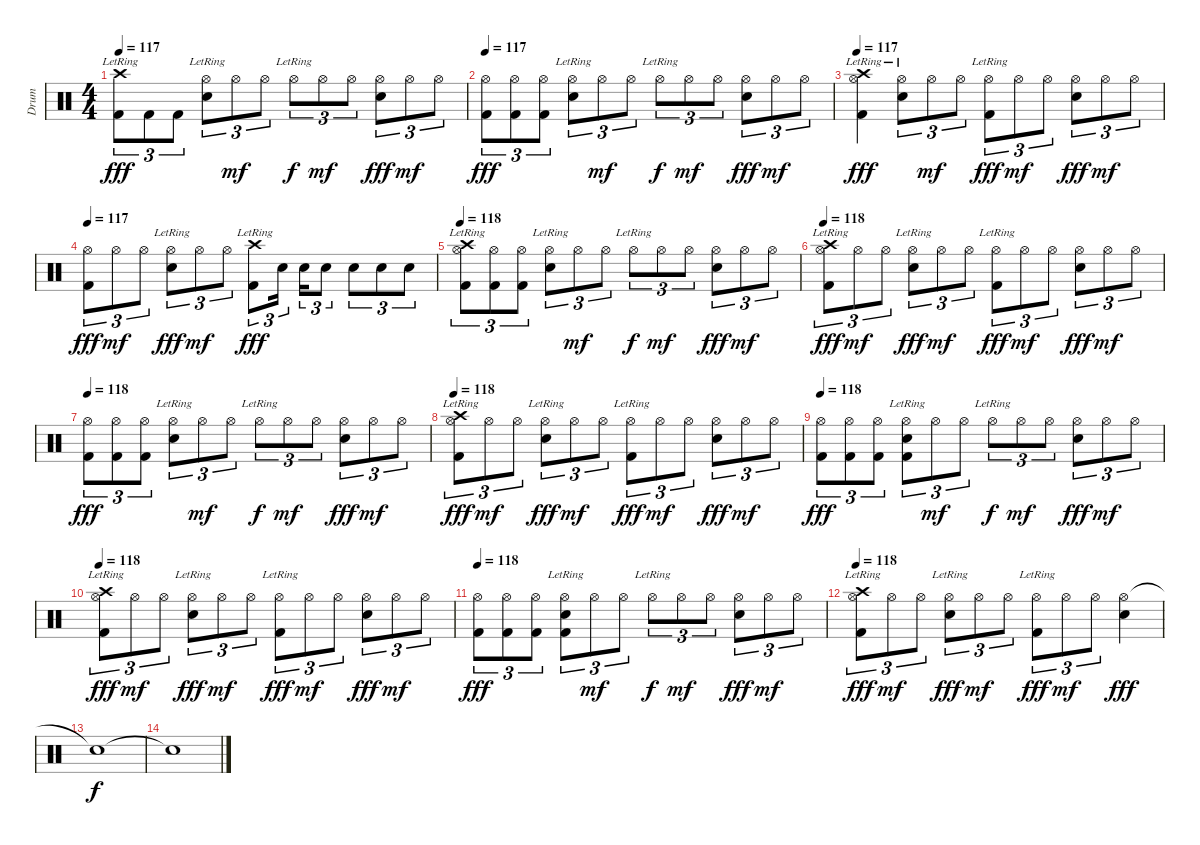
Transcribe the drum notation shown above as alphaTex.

\track ("Drum" "Drum") {instrument percussion}
\staff {score}
\articulation defaults
\ts (4 4)
\tempo 117
\clef neutral
\ks c
("Crash high (hit)"{lr} "Kick (hit) 2").8{tu (3 2) dy fff} "Kick (hit) 2".8{tu (3 2)} "Kick (hit) 2".8{tu (3 2)} ("Hi-Hat (open)"{lr} "Electric Snare (hit)").8{tu (3 2)} "Hi-Hat (open)".8{tu (3 2) dy mf} "Hi-Hat (open)".8{tu (3 2)} "Hi-Hat (open)"{lr}.8{tu (3 2) dy f} "Hi-Hat (open)".8{tu (3 2) dy mf} "Hi-Hat (open)".8{tu (3 2)} ("Hi-Hat (open)" "Electric Snare (hit)").8{tu (3 2) dy fff} "Hi-Hat (open)".8{tu (3 2) dy mf} "Hi-Hat (open)".8{tu (3 2)} |
\tempo 117
("Hi-Hat (open)" "Kick (hit) 2").8{tu (3 2) dy fff} ("Hi-Hat (open)" "Kick (hit) 2").8{tu (3 2)} ("Hi-Hat (open)" "Kick (hit) 2").8{tu (3 2)} ("Hi-Hat (open)"{lr} "Electric Snare (hit)").8{tu (3 2)} "Hi-Hat (open)".8{tu (3 2) dy mf} "Hi-Hat (open)".8{tu (3 2)} "Hi-Hat (open)"{lr}.8{tu (3 2) dy f} "Hi-Hat (open)".8{tu (3 2) dy mf} "Hi-Hat (open)".8{tu (3 2)} ("Hi-Hat (open)" "Electric Snare (hit)").8{tu (3 2) dy fff} "Hi-Hat (open)".8{tu (3 2) dy mf} "Hi-Hat (open)".8{tu (3 2)} |
\tempo 117
("Crash high (hit)"{lr} "Hi-Hat (open)" "Kick (hit) 2").4{dy fff} ("Hi-Hat (open)"{lr} "Electric Snare (hit)").8{tu (3 2)} "Hi-Hat (open)".8{tu (3 2) dy mf} "Hi-Hat (open)".8{tu (3 2)} ("Hi-Hat (open)"{lr} "Kick (hit) 2").8{tu (3 2) dy fff} "Hi-Hat (open)".8{tu (3 2) dy mf} "Hi-Hat (open)".8{tu (3 2)} ("Hi-Hat (open)" "Electric Snare (hit)").8{tu (3 2) dy fff} "Hi-Hat (open)".8{tu (3 2) dy mf} "Hi-Hat (open)".8{tu (3 2)} |
\tempo 117
("Hi-Hat (open)" "Kick (hit) 2").8{tu (3 2) dy fff} "Hi-Hat (open)".8{tu (3 2) dy mf} "Hi-Hat (open)".8{tu (3 2)} ("Hi-Hat (open)"{lr} "Electric Snare (hit)").8{tu (3 2) dy fff} "Hi-Hat (open)".8{tu (3 2) dy mf} "Hi-Hat (open)".8{tu (3 2)} ("Crash high (hit)"{lr} "Kick (hit) 2").8{tu (3 2) dy fff} "Electric Snare (hit)".16{tu (3 2) beam splitsecondary} "Electric Snare (hit)".16{tu (3 2)} "Electric Snare (hit)".8{tu (3 2)} "Electric Snare (hit)".8{tu (3 2)} "Electric Snare (hit)".8{tu (3 2)} "Electric Snare (hit)".8{tu (3 2)} |
\tempo 118
("Crash high (hit)"{lr} "Hi-Hat (open)" "Kick (hit) 2").8{tu (3 2)} ("Hi-Hat (open)" "Kick (hit) 2").8{tu (3 2)} ("Hi-Hat (open)" "Kick (hit) 2").8{tu (3 2)} ("Hi-Hat (open)"{lr} "Electric Snare (hit)").8{tu (3 2)} "Hi-Hat (open)".8{tu (3 2) dy mf} "Hi-Hat (open)".8{tu (3 2)} "Hi-Hat (open)"{lr}.8{tu (3 2) dy f} "Hi-Hat (open)".8{tu (3 2) dy mf} "Hi-Hat (open)".8{tu (3 2)} ("Hi-Hat (open)" "Electric Snare (hit)").8{tu (3 2) dy fff} "Hi-Hat (open)".8{tu (3 2) dy mf} "Hi-Hat (open)".8{tu (3 2)} |
\tempo 118
("Crash high (hit)" "Hi-Hat (open)"{lr} "Kick (hit) 2").8{tu (3 2) dy fff} "Hi-Hat (open)".8{tu (3 2) dy mf} "Hi-Hat (open)".8{tu (3 2)} ("Hi-Hat (open)"{lr} "Electric Snare (hit)").8{tu (3 2) dy fff} "Hi-Hat (open)".8{tu (3 2) dy mf} "Hi-Hat (open)".8{tu (3 2)} ("Hi-Hat (open)"{lr} "Kick (hit) 2").8{tu (3 2) dy fff} "Hi-Hat (open)".8{tu (3 2) dy mf} "Hi-Hat (open)".8{tu (3 2)} ("Hi-Hat (open)" "Electric Snare (hit)").8{tu (3 2) dy fff} "Hi-Hat (open)".8{tu (3 2) dy mf} "Hi-Hat (open)".8{tu (3 2)} |
\tempo 118
("Hi-Hat (open)" "Kick (hit) 2").8{tu (3 2) dy fff} ("Hi-Hat (open)" "Kick (hit) 2").8{tu (3 2)} ("Hi-Hat (open)" "Kick (hit) 2").8{tu (3 2)} ("Hi-Hat (open)"{lr} "Electric Snare (hit)").8{tu (3 2)} "Hi-Hat (open)".8{tu (3 2) dy mf} "Hi-Hat (open)".8{tu (3 2)} "Hi-Hat (open)"{lr}.8{tu (3 2) dy f} "Hi-Hat (open)".8{tu (3 2) dy mf} "Hi-Hat (open)".8{tu (3 2)} ("Hi-Hat (open)" "Electric Snare (hit)").8{tu (3 2) dy fff} "Hi-Hat (open)".8{tu (3 2) dy mf} "Hi-Hat (open)".8{tu (3 2)} |
\tempo 118
("Crash high (hit)" "Hi-Hat (open)"{lr} "Kick (hit) 2").8{tu (3 2) dy fff} "Hi-Hat (open)".8{tu (3 2) dy mf} "Hi-Hat (open)".8{tu (3 2)} ("Hi-Hat (open)"{lr} "Electric Snare (hit)").8{tu (3 2) dy fff} "Hi-Hat (open)".8{tu (3 2) dy mf} "Hi-Hat (open)".8{tu (3 2)} ("Hi-Hat (open)"{lr} "Kick (hit) 2").8{tu (3 2) dy fff} "Hi-Hat (open)".8{tu (3 2) dy mf} "Hi-Hat (open)".8{tu (3 2)} ("Hi-Hat (open)" "Electric Snare (hit)").8{tu (3 2) dy fff} "Hi-Hat (open)".8{tu (3 2) dy mf} "Hi-Hat (open)".8{tu (3 2)} |
\tempo 118
("Hi-Hat (open)" "Kick (hit) 2").8{tu (3 2) dy fff} ("Hi-Hat (open)" "Kick (hit) 2").8{tu (3 2)} ("Hi-Hat (open)" "Kick (hit) 2").8{tu (3 2)} ("Hi-Hat (open)"{lr} "Electric Snare (hit)" "Kick (hit) 2").8{tu (3 2)} "Hi-Hat (open)".8{tu (3 2) dy mf} "Hi-Hat (open)".8{tu (3 2)} "Hi-Hat (open)"{lr}.8{tu (3 2) dy f} "Hi-Hat (open)".8{tu (3 2) dy mf} "Hi-Hat (open)".8{tu (3 2)} ("Hi-Hat (open)" "Electric Snare (hit)").8{tu (3 2) dy fff} "Hi-Hat (open)".8{tu (3 2) dy mf} "Hi-Hat (open)".8{tu (3 2)} |
\tempo 118
("Crash high (hit)" "Hi-Hat (open)"{lr} "Kick (hit) 2").8{tu (3 2) dy fff} "Hi-Hat (open)".8{tu (3 2) dy mf} "Hi-Hat (open)".8{tu (3 2)} ("Hi-Hat (open)"{lr} "Electric Snare (hit)").8{tu (3 2) dy fff} "Hi-Hat (open)".8{tu (3 2) dy mf} "Hi-Hat (open)".8{tu (3 2)} ("Hi-Hat (open)"{lr} "Kick (hit) 2").8{tu (3 2) dy fff} "Hi-Hat (open)".8{tu (3 2) dy mf} "Hi-Hat (open)".8{tu (3 2)} ("Hi-Hat (open)" "Electric Snare (hit)").8{tu (3 2) dy fff} "Hi-Hat (open)".8{tu (3 2) dy mf} "Hi-Hat (open)".8{tu (3 2)} |
\tempo 118
("Hi-Hat (open)" "Kick (hit) 2").8{tu (3 2) dy fff} ("Hi-Hat (open)" "Kick (hit) 2").8{tu (3 2)} ("Hi-Hat (open)" "Kick (hit) 2").8{tu (3 2)} ("Hi-Hat (open)"{lr} "Electric Snare (hit)" "Kick (hit) 2").8{tu (3 2)} "Hi-Hat (open)".8{tu (3 2) dy mf} "Hi-Hat (open)".8{tu (3 2)} "Hi-Hat (open)"{lr}.8{tu (3 2) dy f} "Hi-Hat (open)".8{tu (3 2) dy mf} "Hi-Hat (open)".8{tu (3 2)} ("Hi-Hat (open)" "Electric Snare (hit)").8{tu (3 2) dy fff} "Hi-Hat (open)".8{tu (3 2) dy mf} "Hi-Hat (open)".8{tu (3 2)} |
\tempo 118
("Crash high (hit)" "Hi-Hat (open)"{lr} "Kick (hit) 2").8{tu (3 2) dy fff} "Hi-Hat (open)".8{tu (3 2) dy mf} "Hi-Hat (open)".8{tu (3 2)} ("Hi-Hat (open)"{lr} "Electric Snare (hit)").8{tu (3 2) dy fff} "Hi-Hat (open)".8{tu (3 2) dy mf} "Hi-Hat (open)".8{tu (3 2)} ("Hi-Hat (open)"{lr} "Kick (hit) 2").8{tu (3 2) dy fff} "Hi-Hat (open)".8{tu (3 2) dy mf} "Hi-Hat (open)".8{tu (3 2)} ("Hi-Hat (open)" "Electric Snare (hit)").4{dy fff} |
"Snare (hit)"{t}.1{dy f} |
"Snare (hit)"{t}.1
